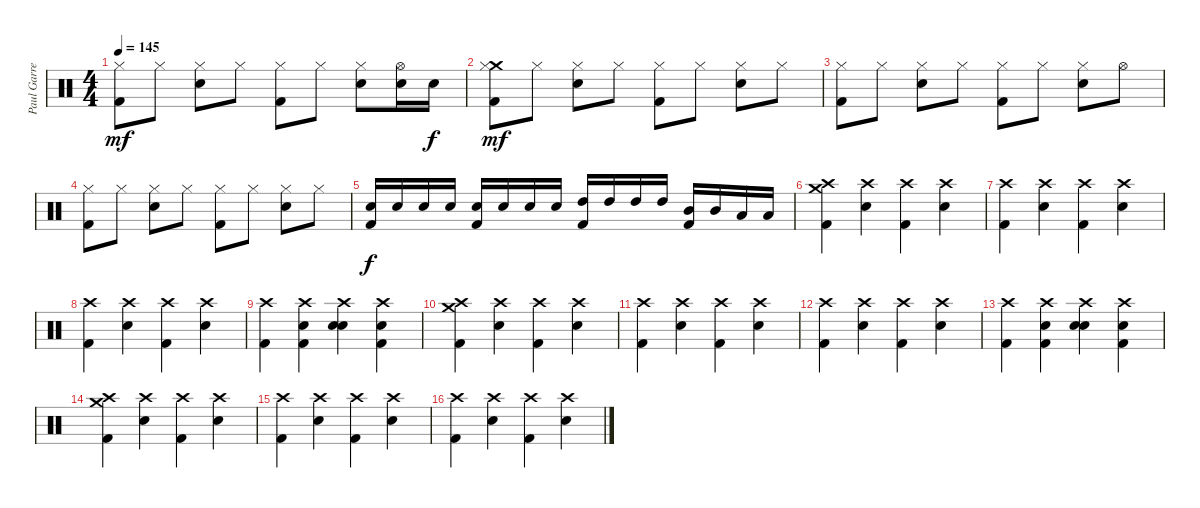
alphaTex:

\track ("Paul Garred (Percussion)" "Paul Garre") {instrument percussion}
\staff {score}
\articulation defaults
\ts (4 4)
\tempo 145
\clef neutral
\ks c
("Hi-Hat (closed)" "Kick (hit) 2").8{dy mf} "Hi-Hat (closed)".8 ("Hi-Hat (closed)" "Snare (hit) 2").8 "Hi-Hat (closed)".8 ("Hi-Hat (closed)" "Kick (hit) 2").8 "Hi-Hat (closed)".8 ("Hi-Hat (closed)" "Snare (hit) 2").8 ("Hi-Hat (open)" "Snare (hit) 2").16 "Snare (hit) 2".16{dy f} |
("Crash medium (hit)" "Hi-Hat (closed)" "Kick (hit) 2").8{dy mf} "Hi-Hat (closed)".8 ("Hi-Hat (closed)" "Snare (hit) 2").8 "Hi-Hat (closed)".8 ("Hi-Hat (closed)" "Kick (hit) 2").8 "Hi-Hat (closed)".8 ("Hi-Hat (closed)" "Snare (hit) 2").8 "Hi-Hat (closed)".8 |
("Hi-Hat (closed)" "Kick (hit) 2").8 "Hi-Hat (closed)".8 ("Hi-Hat (closed)" "Snare (hit) 2").8 "Hi-Hat (closed)".8 ("Hi-Hat (closed)" "Kick (hit) 2").8 "Hi-Hat (closed)".8 ("Hi-Hat (closed)" "Snare (hit) 2").8 "Hi-Hat (open)".8 |
("Hi-Hat (closed)" "Kick (hit) 2").8 "Hi-Hat (closed)".8 ("Hi-Hat (closed)" "Snare (hit) 2").8 "Hi-Hat (closed)".8 ("Hi-Hat (closed)" "Kick (hit) 2").8 "Hi-Hat (closed)".8 ("Hi-Hat (closed)" "Snare (hit) 2").8 "Hi-Hat (closed)".8 |
("Snare (hit) 2" "Kick (hit) 2").16{dy f} "Snare (hit) 2".16 "Snare (hit) 2".16 "Snare (hit) 2".16 ("Snare (hit) 2" "Kick (hit) 2").16 "Snare (hit) 2".16 "Snare (hit) 2".16 "Snare (hit) 2".16 ("High Tom (hit)" "Kick (hit) 2").16 "High Tom (hit)".16 "High Tom (hit)".16 "High Tom (hit)".16 ("Mid Tom (hit)" "Kick (hit) 2").16 "Mid Tom (hit)".16 "Low Tom (hit)".16 "Low Tom (hit)".16 |
("Crash medium (hit)" "Crash high (hit)" "Kick (hit) 2").4 ("Crash high (hit)" "Snare (hit) 2").4 ("Crash high (hit)" "Kick (hit) 2").4 ("Crash high (hit)" "Snare (hit) 2").4 |
("Crash high (hit)" "Kick (hit) 2").4 ("Crash high (hit)" "Snare (hit) 2").4 ("Crash high (hit)" "Kick (hit) 2").4 ("Crash high (hit)" "Snare (hit) 2").4 |
("Crash high (hit)" "Kick (hit) 2").4 ("Crash high (hit)" "Snare (hit) 2").4 ("Crash high (hit)" "Kick (hit) 2").4 ("Crash high (hit)" "Snare (hit) 2").4 |
("Crash high (hit)" "Kick (hit) 2").4 ("Crash high (hit)" "Snare (hit) 2" "Kick (hit) 2").4 ("Crash high (hit)" "Snare (hit) 2" "Snare (hit) 2").4 ("Crash high (hit)" "Snare (hit) 2" "Kick (hit) 2").4 |
("Crash medium (hit)" "Crash high (hit)" "Kick (hit) 2").4 ("Crash high (hit)" "Snare (hit) 2").4 ("Crash high (hit)" "Kick (hit) 2").4 ("Crash high (hit)" "Snare (hit) 2").4 |
("Crash high (hit)" "Kick (hit) 2").4 ("Crash high (hit)" "Snare (hit) 2").4 ("Crash high (hit)" "Kick (hit) 2").4 ("Crash high (hit)" "Snare (hit) 2").4 |
("Crash high (hit)" "Kick (hit) 2").4 ("Crash high (hit)" "Snare (hit) 2").4 ("Crash high (hit)" "Kick (hit) 2").4 ("Crash high (hit)" "Snare (hit) 2").4 |
("Crash high (hit)" "Kick (hit) 2").4 ("Crash high (hit)" "Snare (hit) 2" "Kick (hit) 2").4 ("Crash high (hit)" "Snare (hit) 2" "Snare (hit) 2").4 ("Crash high (hit)" "Snare (hit) 2" "Kick (hit) 2").4 |
("Crash medium (hit)" "Crash high (hit)" "Kick (hit) 2").4 ("Crash high (hit)" "Snare (hit) 2").4 ("Crash high (hit)" "Kick (hit) 2").4 ("Crash high (hit)" "Snare (hit) 2").4 |
("Crash high (hit)" "Kick (hit) 2").4 ("Crash high (hit)" "Snare (hit) 2").4 ("Crash high (hit)" "Kick (hit) 2").4 ("Crash high (hit)" "Snare (hit) 2").4 |
("Crash high (hit)" "Kick (hit) 2").4 ("Crash high (hit)" "Snare (hit) 2").4 ("Crash high (hit)" "Kick (hit) 2").4 ("Crash high (hit)" "Snare (hit) 2").4
